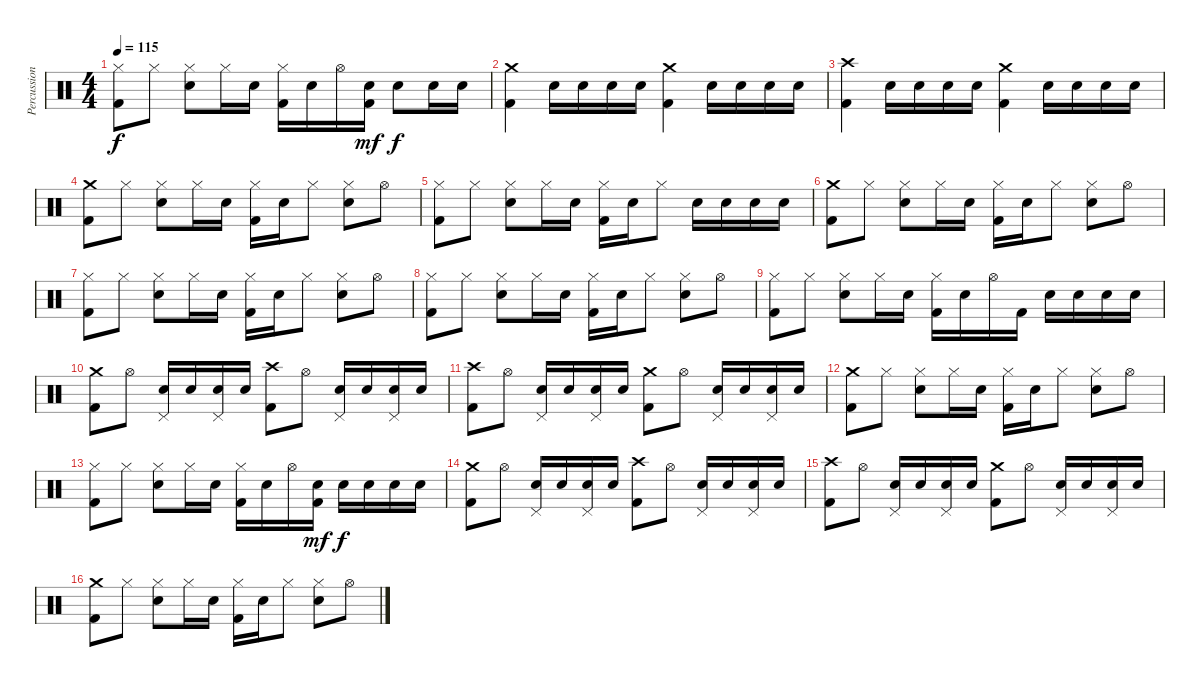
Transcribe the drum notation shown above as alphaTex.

\track ("Percussion" "Percussion") {instrument percussion}
\staff {score}
\articulation defaults
\ts (4 4)
\tempo 115
\clef neutral
\ks c
("Hi-Hat (closed)" "Kick (hit) 2").8{dy f} "Hi-Hat (closed)".8 ("Hi-Hat (closed)" "Electric Snare (hit)").8 "Hi-Hat (closed)".16 "Electric Snare (hit)".16 ("Hi-Hat (closed)" "Kick (hit) 2").16 "Electric Snare (hit)".16 "Hi-Hat (open)".16 ("Electric Snare (hit)" "Kick (hit) 2").16{dy mf} "Electric Snare (hit)".8{dy f} "Electric Snare (hit)".16 "Electric Snare (hit)".16 |
("Crash medium (hit)" "Kick (hit) 2").4 "Electric Snare (hit)".16 "Electric Snare (hit)".16 "Electric Snare (hit)".16 "Electric Snare (hit)".16 ("Crash medium (hit)" "Kick (hit) 2").4 "Electric Snare (hit)".16 "Electric Snare (hit)".16 "Electric Snare (hit)".16 "Electric Snare (hit)".16 |
("Crash high (hit)" "Kick (hit) 2").4 "Electric Snare (hit)".16 "Electric Snare (hit)".16 "Electric Snare (hit)".16 "Electric Snare (hit)".16 ("Crash medium (hit)" "Kick (hit) 2").4 "Electric Snare (hit)".16 "Electric Snare (hit)".16 "Electric Snare (hit)".16 "Electric Snare (hit)".16 |
("Crash medium (hit)" "Kick (hit) 2").8 "Hi-Hat (closed)".8 ("Hi-Hat (closed)" "Electric Snare (hit)").8 "Hi-Hat (closed)".16 "Electric Snare (hit)".16 ("Hi-Hat (closed)" "Kick (hit) 2").16 "Electric Snare (hit)".16 "Hi-Hat (closed)".8 ("Hi-Hat (closed)" "Electric Snare (hit)").8 "Hi-Hat (open)".8 |
("Hi-Hat (closed)" "Kick (hit) 2").8 "Hi-Hat (closed)".8 ("Hi-Hat (closed)" "Electric Snare (hit)").8 "Hi-Hat (closed)".16 "Electric Snare (hit)".16 ("Hi-Hat (closed)" "Kick (hit) 2").16 "Electric Snare (hit)".16 "Hi-Hat (closed)".8 "Electric Snare (hit)".16 "Electric Snare (hit)".16 "Electric Snare (hit)".16 "Electric Snare (hit)".16 |
("Crash medium (hit)" "Kick (hit) 2").8 "Hi-Hat (closed)".8 ("Hi-Hat (closed)" "Electric Snare (hit)").8 "Hi-Hat (closed)".16 "Electric Snare (hit)".16 ("Hi-Hat (closed)" "Kick (hit) 2").16 "Electric Snare (hit)".16 "Hi-Hat (closed)".8 ("Hi-Hat (closed)" "Electric Snare (hit)").8 "Hi-Hat (open)".8 |
("Hi-Hat (closed)" "Kick (hit) 2").8 "Hi-Hat (closed)".8 ("Hi-Hat (closed)" "Electric Snare (hit)").8 "Hi-Hat (closed)".16 "Electric Snare (hit)".16 ("Hi-Hat (closed)" "Kick (hit) 2").16 "Electric Snare (hit)".16 "Hi-Hat (closed)".8 ("Hi-Hat (closed)" "Electric Snare (hit)").8 "Hi-Hat (open)".8 |
("Hi-Hat (closed)" "Kick (hit) 2").8 "Hi-Hat (closed)".8 ("Hi-Hat (closed)" "Electric Snare (hit)").8 "Hi-Hat (closed)".16 "Electric Snare (hit)".16 ("Hi-Hat (closed)" "Kick (hit) 2").16 "Electric Snare (hit)".16 "Hi-Hat (closed)".8 ("Hi-Hat (closed)" "Electric Snare (hit)").8 "Hi-Hat (open)".8 |
("Hi-Hat (closed)" "Kick (hit) 2").8 "Hi-Hat (closed)".8 ("Hi-Hat (closed)" "Electric Snare (hit)").8 "Hi-Hat (closed)".16 "Electric Snare (hit)".16 ("Hi-Hat (closed)" "Kick (hit) 2").16 "Electric Snare (hit)".16 "Hi-Hat (open)".16 "Kick (hit) 2".16 "Electric Snare (hit)".16 "Electric Snare (hit)".16 "Electric Snare (hit)".16 "Electric Snare (hit)".16 |
("Crash medium (hit)" "Kick (hit) 2").8 "Hi-Hat (open)".8 ("Pedal Hi-Hat (hit)" "Electric Snare (hit)").16 "Electric Snare (hit)".16 ("Pedal Hi-Hat (hit)" "Electric Snare (hit)").16 "Electric Snare (hit)".16 ("Crash high (hit)" "Kick (hit) 2").8 "Hi-Hat (open)".8 ("Pedal Hi-Hat (hit)" "Electric Snare (hit)").16 "Electric Snare (hit)".16 ("Pedal Hi-Hat (hit)" "Electric Snare (hit)").16 "Electric Snare (hit)".16 |
("Crash high (hit)" "Kick (hit) 2").8 "Hi-Hat (open)".8 ("Pedal Hi-Hat (hit)" "Electric Snare (hit)").16 "Electric Snare (hit)".16 ("Pedal Hi-Hat (hit)" "Electric Snare (hit)").16 "Electric Snare (hit)".16 ("Crash medium (hit)" "Kick (hit) 2").8 "Hi-Hat (open)".8 ("Pedal Hi-Hat (hit)" "Electric Snare (hit)").16 "Electric Snare (hit)".16 ("Pedal Hi-Hat (hit)" "Electric Snare (hit)").16 "Electric Snare (hit)".16 |
("Crash medium (hit)" "Kick (hit) 2").8 "Hi-Hat (closed)".8 ("Hi-Hat (closed)" "Electric Snare (hit)").8 "Hi-Hat (closed)".16 "Electric Snare (hit)".16 ("Hi-Hat (closed)" "Kick (hit) 2").16 "Electric Snare (hit)".16 "Hi-Hat (closed)".8 ("Hi-Hat (closed)" "Electric Snare (hit)").8 "Hi-Hat (open)".8 |
("Hi-Hat (closed)" "Kick (hit) 2").8 "Hi-Hat (closed)".8 ("Hi-Hat (closed)" "Electric Snare (hit)").8 "Hi-Hat (closed)".16 "Electric Snare (hit)".16 ("Hi-Hat (closed)" "Kick (hit) 2").16 "Electric Snare (hit)".16 "Hi-Hat (open)".16 ("Electric Snare (hit)" "Kick (hit) 2").16{dy mf} "Electric Snare (hit)".16{dy f} "Electric Snare (hit)".16 "Electric Snare (hit)".16 "Electric Snare (hit)".16 |
("Crash medium (hit)" "Kick (hit) 2").8 "Hi-Hat (open)".8 ("Pedal Hi-Hat (hit)" "Electric Snare (hit)").16 "Electric Snare (hit)".16 ("Pedal Hi-Hat (hit)" "Electric Snare (hit)").16 "Electric Snare (hit)".16 ("Crash high (hit)" "Kick (hit) 2").8 "Hi-Hat (open)".8 ("Pedal Hi-Hat (hit)" "Electric Snare (hit)").16 "Electric Snare (hit)".16 ("Pedal Hi-Hat (hit)" "Electric Snare (hit)").16 "Electric Snare (hit)".16 |
("Crash high (hit)" "Kick (hit) 2").8 "Hi-Hat (open)".8 ("Pedal Hi-Hat (hit)" "Electric Snare (hit)").16 "Electric Snare (hit)".16 ("Pedal Hi-Hat (hit)" "Electric Snare (hit)").16 "Electric Snare (hit)".16 ("Crash medium (hit)" "Kick (hit) 2").8 "Hi-Hat (open)".8 ("Pedal Hi-Hat (hit)" "Electric Snare (hit)").16 "Electric Snare (hit)".16 ("Pedal Hi-Hat (hit)" "Electric Snare (hit)").16 "Electric Snare (hit)".16 |
("Crash medium (hit)" "Kick (hit) 2").8 "Hi-Hat (closed)".8 ("Hi-Hat (closed)" "Electric Snare (hit)").8 "Hi-Hat (closed)".16 "Electric Snare (hit)".16 ("Hi-Hat (closed)" "Kick (hit) 2").16 "Electric Snare (hit)".16 "Hi-Hat (closed)".8 ("Hi-Hat (closed)" "Electric Snare (hit)").8 "Hi-Hat (open)".8
